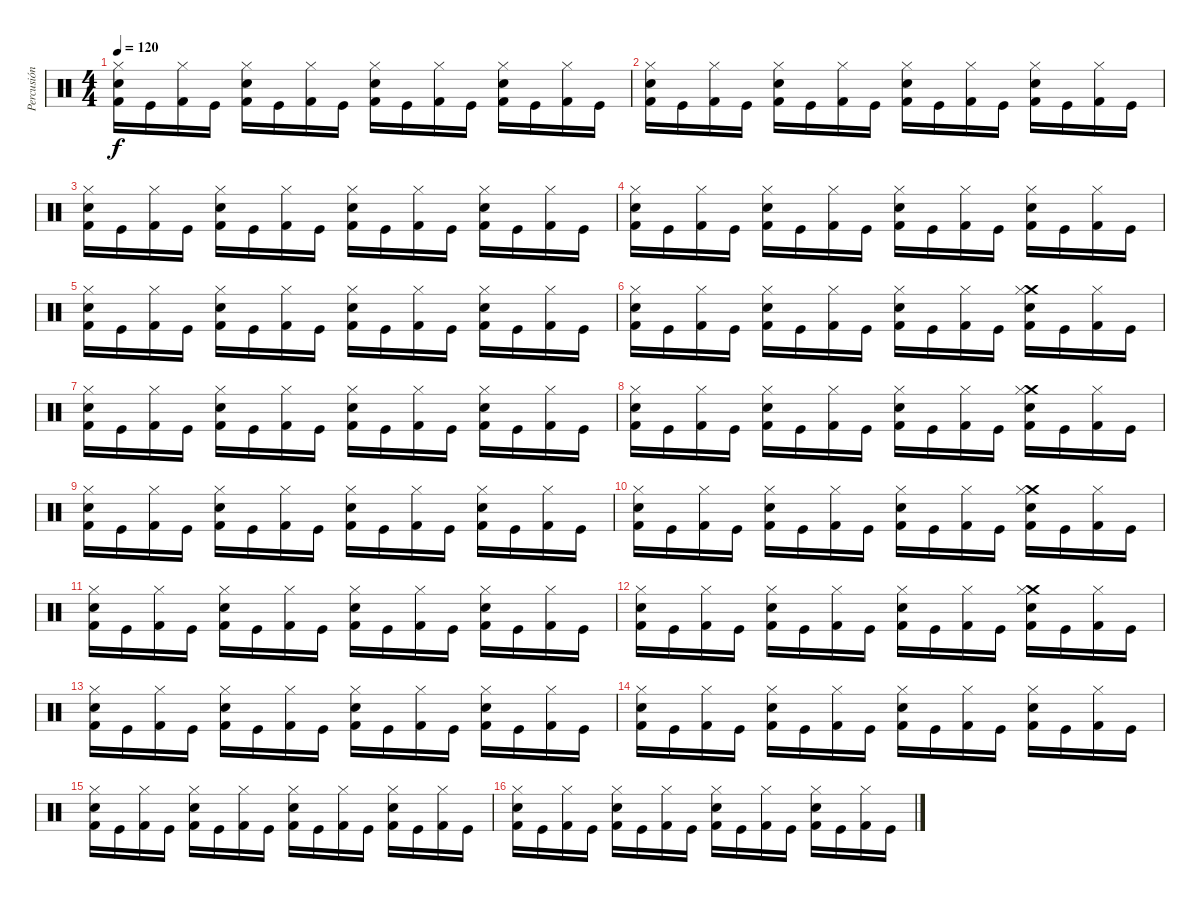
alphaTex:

\track ("Percusión" "Percusión") {instrument percussion}
\staff {score}
\articulation defaults
\ts (4 4)
\tempo 120
\clef neutral
\ks c
("Hi-Hat (closed)" "Snare (hit) 2" "Kick (hit) 2").16{dy f} "Kick (hit)".16 ("Hi-Hat (closed)" "Kick (hit) 2").16 "Kick (hit)".16 ("Hi-Hat (closed)" "Snare (hit) 2" "Kick (hit) 2").16 "Kick (hit)".16 ("Hi-Hat (closed)" "Kick (hit) 2").16 "Kick (hit)".16 ("Hi-Hat (closed)" "Snare (hit) 2" "Kick (hit) 2").16 "Kick (hit)".16 ("Hi-Hat (closed)" "Kick (hit) 2").16 "Kick (hit)".16 ("Hi-Hat (closed)" "Snare (hit) 2" "Kick (hit) 2").16 "Kick (hit)".16 ("Hi-Hat (closed)" "Kick (hit) 2").16 "Kick (hit)".16 |
("Hi-Hat (closed)" "Snare (hit) 2" "Kick (hit) 2").16 "Kick (hit)".16 ("Hi-Hat (closed)" "Kick (hit) 2").16 "Kick (hit)".16 ("Hi-Hat (closed)" "Snare (hit) 2" "Kick (hit) 2").16 "Kick (hit)".16 ("Hi-Hat (closed)" "Kick (hit) 2").16 "Kick (hit)".16 ("Hi-Hat (closed)" "Snare (hit) 2" "Kick (hit) 2").16 "Kick (hit)".16 ("Hi-Hat (closed)" "Kick (hit) 2").16 "Kick (hit)".16 ("Hi-Hat (closed)" "Snare (hit) 2" "Kick (hit) 2").16 "Kick (hit)".16 ("Hi-Hat (closed)" "Kick (hit) 2").16 "Kick (hit)".16 |
("Hi-Hat (closed)" "Snare (hit) 2" "Kick (hit) 2").16 "Kick (hit)".16 ("Hi-Hat (closed)" "Kick (hit) 2").16 "Kick (hit)".16 ("Hi-Hat (closed)" "Snare (hit) 2" "Kick (hit) 2").16 "Kick (hit)".16 ("Hi-Hat (closed)" "Kick (hit) 2").16 "Kick (hit)".16 ("Hi-Hat (closed)" "Snare (hit) 2" "Kick (hit) 2").16 "Kick (hit)".16 ("Hi-Hat (closed)" "Kick (hit) 2").16 "Kick (hit)".16 ("Hi-Hat (closed)" "Snare (hit) 2" "Kick (hit) 2").16 "Kick (hit)".16 ("Hi-Hat (closed)" "Kick (hit) 2").16 "Kick (hit)".16 |
("Hi-Hat (closed)" "Snare (hit) 2" "Kick (hit) 2").16 "Kick (hit)".16 ("Hi-Hat (closed)" "Kick (hit) 2").16 "Kick (hit)".16 ("Hi-Hat (closed)" "Snare (hit) 2" "Kick (hit) 2").16 "Kick (hit)".16 ("Hi-Hat (closed)" "Kick (hit) 2").16 "Kick (hit)".16 ("Hi-Hat (closed)" "Snare (hit) 2" "Kick (hit) 2").16 "Kick (hit)".16 ("Hi-Hat (closed)" "Kick (hit) 2").16 "Kick (hit)".16 ("Hi-Hat (closed)" "Snare (hit) 2" "Kick (hit) 2").16 "Kick (hit)".16 ("Hi-Hat (closed)" "Kick (hit) 2").16 "Kick (hit)".16 |
("Hi-Hat (closed)" "Snare (hit) 2" "Kick (hit) 2").16 "Kick (hit)".16 ("Hi-Hat (closed)" "Kick (hit) 2").16 "Kick (hit)".16 ("Hi-Hat (closed)" "Snare (hit) 2" "Kick (hit) 2").16 "Kick (hit)".16 ("Hi-Hat (closed)" "Kick (hit) 2").16 "Kick (hit)".16 ("Hi-Hat (closed)" "Snare (hit) 2" "Kick (hit) 2").16 "Kick (hit)".16 ("Hi-Hat (closed)" "Kick (hit) 2").16 "Kick (hit)".16 ("Hi-Hat (closed)" "Snare (hit) 2" "Kick (hit) 2").16 "Kick (hit)".16 ("Hi-Hat (closed)" "Kick (hit) 2").16 "Kick (hit)".16 |
("Hi-Hat (closed)" "Snare (hit) 2" "Kick (hit) 2").16 "Kick (hit)".16 ("Hi-Hat (closed)" "Kick (hit) 2").16 "Kick (hit)".16 ("Hi-Hat (closed)" "Snare (hit) 2" "Kick (hit) 2").16 "Kick (hit)".16 ("Hi-Hat (closed)" "Kick (hit) 2").16 "Kick (hit)".16 ("Hi-Hat (closed)" "Snare (hit) 2" "Kick (hit) 2").16 "Kick (hit)".16 ("Hi-Hat (closed)" "Kick (hit) 2").16 "Kick (hit)".16 ("Crash medium (hit)" "Hi-Hat (closed)" "Snare (hit) 2" "Kick (hit) 2").16 "Kick (hit)".16 ("Hi-Hat (closed)" "Kick (hit) 2").16 "Kick (hit)".16 |
("Hi-Hat (closed)" "Snare (hit) 2" "Kick (hit) 2").16 "Kick (hit)".16 ("Hi-Hat (closed)" "Kick (hit) 2").16 "Kick (hit)".16 ("Hi-Hat (closed)" "Snare (hit) 2" "Kick (hit) 2").16 "Kick (hit)".16 ("Hi-Hat (closed)" "Kick (hit) 2").16 "Kick (hit)".16 ("Hi-Hat (closed)" "Snare (hit) 2" "Kick (hit) 2").16 "Kick (hit)".16 ("Hi-Hat (closed)" "Kick (hit) 2").16 "Kick (hit)".16 ("Hi-Hat (closed)" "Snare (hit) 2" "Kick (hit) 2").16 "Kick (hit)".16 ("Hi-Hat (closed)" "Kick (hit) 2").16 "Kick (hit)".16 |
("Hi-Hat (closed)" "Snare (hit) 2" "Kick (hit) 2").16 "Kick (hit)".16 ("Hi-Hat (closed)" "Kick (hit) 2").16 "Kick (hit)".16 ("Hi-Hat (closed)" "Snare (hit) 2" "Kick (hit) 2").16 "Kick (hit)".16 ("Hi-Hat (closed)" "Kick (hit) 2").16 "Kick (hit)".16 ("Hi-Hat (closed)" "Snare (hit) 2" "Kick (hit) 2").16 "Kick (hit)".16 ("Hi-Hat (closed)" "Kick (hit) 2").16 "Kick (hit)".16 ("Crash medium (hit)" "Hi-Hat (closed)" "Snare (hit) 2" "Kick (hit) 2").16 "Kick (hit)".16 ("Hi-Hat (closed)" "Kick (hit) 2").16 "Kick (hit)".16 |
("Hi-Hat (closed)" "Snare (hit) 2" "Kick (hit) 2").16 "Kick (hit)".16 ("Hi-Hat (closed)" "Kick (hit) 2").16 "Kick (hit)".16 ("Hi-Hat (closed)" "Snare (hit) 2" "Kick (hit) 2").16 "Kick (hit)".16 ("Hi-Hat (closed)" "Kick (hit) 2").16 "Kick (hit)".16 ("Hi-Hat (closed)" "Snare (hit) 2" "Kick (hit) 2").16 "Kick (hit)".16 ("Hi-Hat (closed)" "Kick (hit) 2").16 "Kick (hit)".16 ("Hi-Hat (closed)" "Snare (hit) 2" "Kick (hit) 2").16 "Kick (hit)".16 ("Hi-Hat (closed)" "Kick (hit) 2").16 "Kick (hit)".16 |
("Hi-Hat (closed)" "Snare (hit) 2" "Kick (hit) 2").16 "Kick (hit)".16 ("Hi-Hat (closed)" "Kick (hit) 2").16 "Kick (hit)".16 ("Hi-Hat (closed)" "Snare (hit) 2" "Kick (hit) 2").16 "Kick (hit)".16 ("Hi-Hat (closed)" "Kick (hit) 2").16 "Kick (hit)".16 ("Hi-Hat (closed)" "Snare (hit) 2" "Kick (hit) 2").16 "Kick (hit)".16 ("Hi-Hat (closed)" "Kick (hit) 2").16 "Kick (hit)".16 ("Crash medium (hit)" "Hi-Hat (closed)" "Snare (hit) 2" "Kick (hit) 2").16 "Kick (hit)".16 ("Hi-Hat (closed)" "Kick (hit) 2").16 "Kick (hit)".16 |
("Hi-Hat (closed)" "Snare (hit) 2" "Kick (hit) 2").16 "Kick (hit)".16 ("Hi-Hat (closed)" "Kick (hit) 2").16 "Kick (hit)".16 ("Hi-Hat (closed)" "Snare (hit) 2" "Kick (hit) 2").16 "Kick (hit)".16 ("Hi-Hat (closed)" "Kick (hit) 2").16 "Kick (hit)".16 ("Hi-Hat (closed)" "Snare (hit) 2" "Kick (hit) 2").16 "Kick (hit)".16 ("Hi-Hat (closed)" "Kick (hit) 2").16 "Kick (hit)".16 ("Hi-Hat (closed)" "Snare (hit) 2" "Kick (hit) 2").16 "Kick (hit)".16 ("Hi-Hat (closed)" "Kick (hit) 2").16 "Kick (hit)".16 |
("Hi-Hat (closed)" "Snare (hit) 2" "Kick (hit) 2").16 "Kick (hit)".16 ("Hi-Hat (closed)" "Kick (hit) 2").16 "Kick (hit)".16 ("Hi-Hat (closed)" "Snare (hit) 2" "Kick (hit) 2").16 "Kick (hit)".16 ("Hi-Hat (closed)" "Kick (hit) 2").16 "Kick (hit)".16 ("Hi-Hat (closed)" "Snare (hit) 2" "Kick (hit) 2").16 "Kick (hit)".16 ("Hi-Hat (closed)" "Kick (hit) 2").16 "Kick (hit)".16 ("Crash medium (hit)" "Hi-Hat (closed)" "Snare (hit) 2" "Kick (hit) 2").16 "Kick (hit)".16 ("Hi-Hat (closed)" "Kick (hit) 2").16 "Kick (hit)".16 |
("Hi-Hat (closed)" "Snare (hit) 2" "Kick (hit) 2").16 "Kick (hit)".16 ("Hi-Hat (closed)" "Kick (hit) 2").16 "Kick (hit)".16 ("Hi-Hat (closed)" "Snare (hit) 2" "Kick (hit) 2").16 "Kick (hit)".16 ("Hi-Hat (closed)" "Kick (hit) 2").16 "Kick (hit)".16 ("Hi-Hat (closed)" "Snare (hit) 2" "Kick (hit) 2").16 "Kick (hit)".16 ("Hi-Hat (closed)" "Kick (hit) 2").16 "Kick (hit)".16 ("Hi-Hat (closed)" "Snare (hit) 2" "Kick (hit) 2").16 "Kick (hit)".16 ("Hi-Hat (closed)" "Kick (hit) 2").16 "Kick (hit)".16 |
("Hi-Hat (closed)" "Snare (hit) 2" "Kick (hit) 2").16 "Kick (hit)".16 ("Hi-Hat (closed)" "Kick (hit) 2").16 "Kick (hit)".16 ("Hi-Hat (closed)" "Snare (hit) 2" "Kick (hit) 2").16 "Kick (hit)".16 ("Hi-Hat (closed)" "Kick (hit) 2").16 "Kick (hit)".16 ("Hi-Hat (closed)" "Snare (hit) 2" "Kick (hit) 2").16 "Kick (hit)".16 ("Hi-Hat (closed)" "Kick (hit) 2").16 "Kick (hit)".16 ("Hi-Hat (closed)" "Snare (hit) 2" "Kick (hit) 2").16 "Kick (hit)".16 ("Hi-Hat (closed)" "Kick (hit) 2").16 "Kick (hit)".16 |
("Hi-Hat (closed)" "Snare (hit) 2" "Kick (hit) 2").16 "Kick (hit)".16 ("Hi-Hat (closed)" "Kick (hit) 2").16 "Kick (hit)".16 ("Hi-Hat (closed)" "Snare (hit) 2" "Kick (hit) 2").16 "Kick (hit)".16 ("Hi-Hat (closed)" "Kick (hit) 2").16 "Kick (hit)".16 ("Hi-Hat (closed)" "Snare (hit) 2" "Kick (hit) 2").16 "Kick (hit)".16 ("Hi-Hat (closed)" "Kick (hit) 2").16 "Kick (hit)".16 ("Hi-Hat (closed)" "Snare (hit) 2" "Kick (hit) 2").16 "Kick (hit)".16 ("Hi-Hat (closed)" "Kick (hit) 2").16 "Kick (hit)".16 |
("Hi-Hat (closed)" "Snare (hit) 2" "Kick (hit) 2").16 "Kick (hit)".16 ("Hi-Hat (closed)" "Kick (hit) 2").16 "Kick (hit)".16 ("Hi-Hat (closed)" "Snare (hit) 2" "Kick (hit) 2").16 "Kick (hit)".16 ("Hi-Hat (closed)" "Kick (hit) 2").16 "Kick (hit)".16 ("Hi-Hat (closed)" "Snare (hit) 2" "Kick (hit) 2").16 "Kick (hit)".16 ("Hi-Hat (closed)" "Kick (hit) 2").16 "Kick (hit)".16 ("Hi-Hat (closed)" "Snare (hit) 2" "Kick (hit) 2").16 "Kick (hit)".16 ("Hi-Hat (closed)" "Kick (hit) 2").16 "Kick (hit)".16
